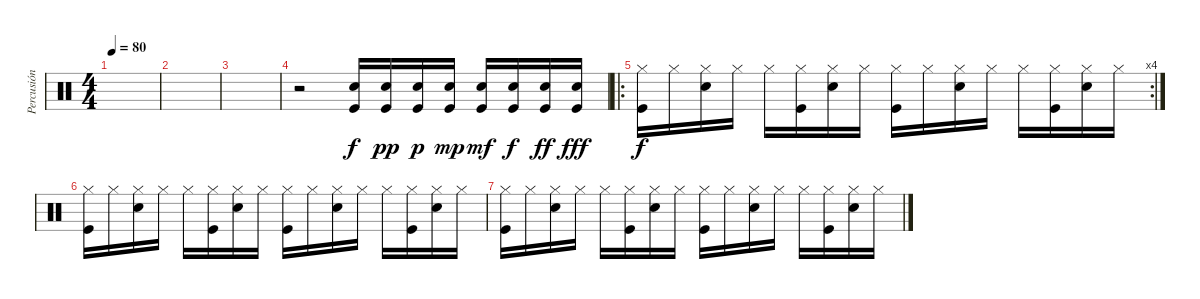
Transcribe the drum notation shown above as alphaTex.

\track ("Percusión" "Percusión") {instrument percussion}
\staff {score}
\articulation defaults
\ts (4 4)
\tempo 80
\clef neutral
\ks c
|
|
|
r.2 ("Kick (hit)" "Snare (hit) 2").16 ("Kick (hit)" "Snare (hit) 2").16{dy pp} ("Kick (hit)" "Snare (hit) 2").16{dy p} ("Kick (hit)" "Snare (hit) 2").16{dy mp} ("Kick (hit)" "Snare (hit) 2").16{dy mf} ("Kick (hit)" "Snare (hit) 2").16{dy f} ("Kick (hit)" "Snare (hit) 2").16{dy ff} ("Kick (hit)" "Snare (hit) 2").16{dy fff} |
\ro
\rc 4
("Hi-Hat (closed)" "Kick (hit)").16{dy f} "Hi-Hat (closed)".16 ("Hi-Hat (closed)" "Snare (hit) 2").16 "Hi-Hat (closed)".16 "Hi-Hat (closed)".16 ("Hi-Hat (closed)" "Kick (hit)").16 ("Hi-Hat (closed)" "Snare (hit) 2").16 "Hi-Hat (closed)".16 ("Hi-Hat (closed)" "Kick (hit)").16 "Hi-Hat (closed)".16 ("Hi-Hat (closed)" "Snare (hit) 2").16 "Hi-Hat (closed)".16 "Hi-Hat (closed)".16 ("Hi-Hat (closed)" "Kick (hit)").16 ("Hi-Hat (closed)" "Snare (hit) 2").16 "Hi-Hat (closed)".16 |
("Hi-Hat (closed)" "Kick (hit)").16 "Hi-Hat (closed)".16 ("Hi-Hat (closed)" "Snare (hit) 2").16 "Hi-Hat (closed)".16 "Hi-Hat (closed)".16 ("Hi-Hat (closed)" "Kick (hit)").16 ("Hi-Hat (closed)" "Snare (hit) 2").16 "Hi-Hat (closed)".16 ("Hi-Hat (closed)" "Kick (hit)").16 "Hi-Hat (closed)".16 ("Hi-Hat (closed)" "Snare (hit) 2").16 "Hi-Hat (closed)".16 "Hi-Hat (closed)".16 ("Hi-Hat (closed)" "Kick (hit)").16 ("Hi-Hat (closed)" "Snare (hit) 2").16 "Hi-Hat (closed)".16 |
("Hi-Hat (closed)" "Kick (hit)").16 "Hi-Hat (closed)".16 ("Hi-Hat (closed)" "Snare (hit) 2").16 "Hi-Hat (closed)".16 "Hi-Hat (closed)".16 ("Hi-Hat (closed)" "Kick (hit)").16 ("Hi-Hat (closed)" "Snare (hit) 2").16 "Hi-Hat (closed)".16 ("Hi-Hat (closed)" "Kick (hit)").16 "Hi-Hat (closed)".16 ("Hi-Hat (closed)" "Snare (hit) 2").16 "Hi-Hat (closed)".16 "Hi-Hat (closed)".16 ("Hi-Hat (closed)" "Kick (hit)").16 ("Hi-Hat (closed)" "Snare (hit) 2").16 "Hi-Hat (closed)".16
